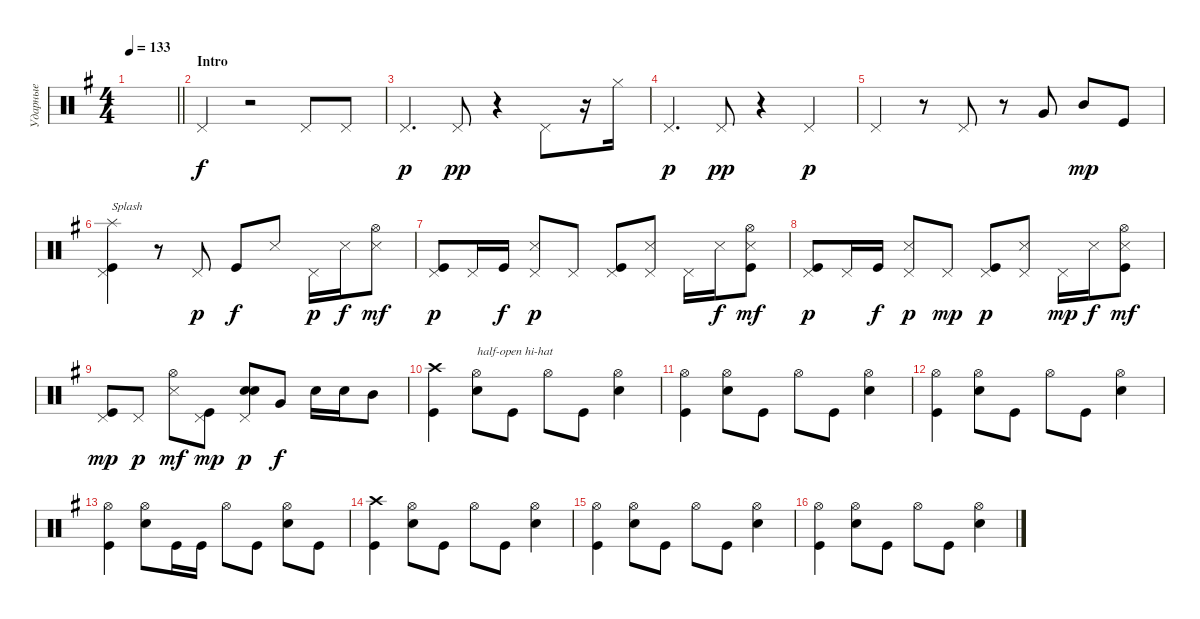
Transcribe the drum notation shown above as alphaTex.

\track ("Ударные" "Ударные") {instrument percussion}
\staff {score}
\articulation defaults
\ts (4 4)
\tempo 133
\clef neutral
\barLineRight lightlight
\ks eminor
|
\section ("" "Intro")
"Pedal Hi-Hat (hit)".4 r.2 "Pedal Hi-Hat (hit)".8 "Pedal Hi-Hat (hit)".8 |
"Pedal Hi-Hat (hit)".4{d dy p} "Pedal Hi-Hat (hit)".8{dy pp} r.4 "Pedal Hi-Hat (hit)".8 r.16 "Hi-Hat (closed)".16 |
"Pedal Hi-Hat (hit)".4{d dy p} "Pedal Hi-Hat (hit)".8{dy pp} r.4 "Pedal Hi-Hat (hit)".4{dy p} |
"Pedal Hi-Hat (hit)".4 r.8 "Pedal Hi-Hat (hit)".8 r.8 "Very Low Tom (hit)".8 "Mid Tom (hit)".8{dy mp} "Kick (hit)".8 |
("Pedal Hi-Hat (hit)" "Splash (hit)" "Kick (hit)").4{txt "Splash"} r.8 "Pedal Hi-Hat (hit)".8{dy p} "Kick (hit)".8{dy f} "Snare (side stick) 3".8 "Pedal Hi-Hat (hit)".16{dy p} "Snare (side stick) 3".16{dy f} ("Snare (side stick) 3" "Hi-Hat (open)").8{dy mf} |
("Pedal Hi-Hat (hit)" "Kick (hit)").8{dy p} "Pedal Hi-Hat (hit)".16 "Kick (hit)".16{dy f} ("Pedal Hi-Hat (hit)" "Snare (side stick) 3").8{dy p} "Pedal Hi-Hat (hit)".8 ("Kick (hit)" "Pedal Hi-Hat (hit)").8 ("Snare (side stick) 3" "Pedal Hi-Hat (hit)").8 "Pedal Hi-Hat (hit)".16 "Snare (side stick) 3".16{dy f} ("Kick (hit)" "Hi-Hat (open)" "Snare (side stick) 3").8{dy mf} |
("Pedal Hi-Hat (hit)" "Kick (hit)").8{dy p} "Pedal Hi-Hat (hit)".16 "Kick (hit)".16{dy f} ("Pedal Hi-Hat (hit)" "Snare (side stick) 3").8{dy p} "Pedal Hi-Hat (hit)".8{dy mp} ("Kick (hit)" "Pedal Hi-Hat (hit)").8{dy p} ("Snare (side stick) 3" "Pedal Hi-Hat (hit)").8 "Pedal Hi-Hat (hit)".16{dy mp} "Snare (side stick) 3".16{dy f} ("Kick (hit)" "Hi-Hat (open)" "Snare (side stick) 3").8{dy mf} |
("Pedal Hi-Hat (hit)" "Kick (hit)").8{dy mp} "Pedal Hi-Hat (hit)".8{dy p} ("Hi-Hat (open)" "Snare (side stick) 3").8{dy mf} ("Kick (hit)" "Pedal Hi-Hat (hit)").8{dy mp} ("Snare (hit) 2" "Snare (hit) 2" "Pedal Hi-Hat (hit)").8{bd 120 dy p} "Very Low Tom (hit)".8{dy f} "Snare (hit) 2".16 "Snare (hit) 2".16 "Mid Tom (hit)".8 |
("Kick (hit)" "Crash high (hit)").4 ("Snare (hit) 2" "Hi-Hat (open)").8{txt "half-open hi-hat"} "Kick (hit)".8 "Hi-Hat (open)".8 "Kick (hit)".8 ("Hi-Hat (open)" "Snare (hit) 2").4 |
("Kick (hit)" "Hi-Hat (open)").4 ("Snare (hit) 2" "Hi-Hat (open)").8 "Kick (hit)".8 "Hi-Hat (open)".8 "Kick (hit)".8 ("Hi-Hat (open)" "Snare (hit) 2").4 |
("Kick (hit)" "Hi-Hat (open)").4 ("Snare (hit) 2" "Hi-Hat (open)").8 "Kick (hit)".8 "Hi-Hat (open)".8 "Kick (hit)".8 ("Hi-Hat (open)" "Snare (hit) 2").4 |
("Kick (hit)" "Hi-Hat (open)").4 ("Snare (hit) 2" "Hi-Hat (open)").8 "Kick (hit)".16 "Kick (hit)".16 "Hi-Hat (open)".8 "Kick (hit)".8 ("Hi-Hat (open)" "Snare (hit) 2").8 "Kick (hit)".8 |
("Kick (hit)" "Crash high (hit)").4 ("Snare (hit) 2" "Hi-Hat (open)").8 "Kick (hit)".8 "Hi-Hat (open)".8 "Kick (hit)".8 ("Hi-Hat (open)" "Snare (hit) 2").4 |
("Kick (hit)" "Hi-Hat (open)").4 ("Snare (hit) 2" "Hi-Hat (open)").8 "Kick (hit)".8 "Hi-Hat (open)".8 "Kick (hit)".8 ("Hi-Hat (open)" "Snare (hit) 2").4 |
("Kick (hit)" "Hi-Hat (open)").4 ("Snare (hit) 2" "Hi-Hat (open)").8 "Kick (hit)".8 "Hi-Hat (open)".8 "Kick (hit)".8 ("Hi-Hat (open)" "Snare (hit) 2").4
